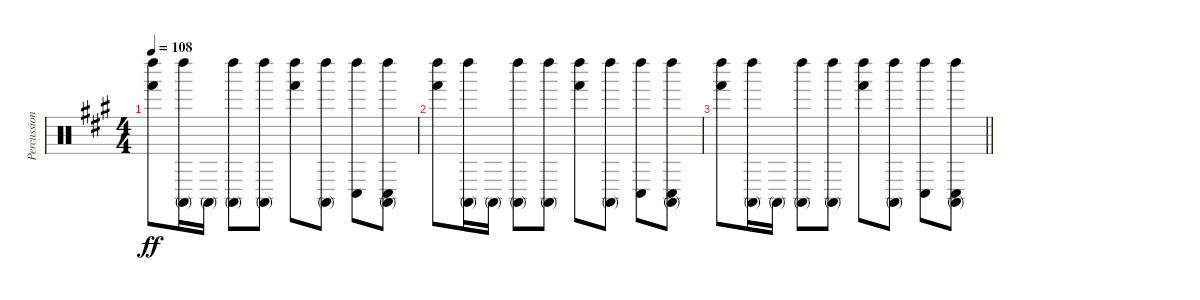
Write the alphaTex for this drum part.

\track ("Percussions" "Percussion") {instrument percussion}
\staff {score}
\articulation defaults
\ts (4 4)
\tempo 108
\clef neutral
\ks f#minor
("Hand (hit)" "Left Maraca (hit)").8{dy ff} ("Left Maraca (hit)" "Conga high (mute)").16 "Conga high (mute)".16 ("Left Maraca (hit)" "Conga high (mute)").8 ("Left Maraca (hit)" "Conga high (mute)").8 ("Left Maraca (hit)" "Hand (hit)").8 ("Left Maraca (hit)" "Conga high (mute)").8 ("Left Maraca (hit)" "Conga low (hit)").8 ("Left Maraca (hit)" "Conga high (mute)" "Conga low (hit)").8 |
("Hand (hit)" "Left Maraca (hit)").8 ("Left Maraca (hit)" "Conga high (mute)").16 "Conga high (mute)".16 ("Left Maraca (hit)" "Conga high (mute)").8 ("Left Maraca (hit)" "Conga high (mute)").8 ("Left Maraca (hit)" "Hand (hit)").8 ("Left Maraca (hit)" "Conga high (mute)").8 ("Left Maraca (hit)" "Conga low (hit)").8 ("Left Maraca (hit)" "Conga high (mute)" "Conga low (hit)").8 |
\barLineRight lightlight
("Hand (hit)" "Left Maraca (hit)").8 ("Left Maraca (hit)" "Conga high (mute)").16 "Conga high (mute)".16 ("Left Maraca (hit)" "Conga high (mute)").8 ("Left Maraca (hit)" "Conga high (mute)").8 ("Left Maraca (hit)" "Hand (hit)").8 ("Left Maraca (hit)" "Conga high (mute)").8 ("Left Maraca (hit)" "Conga low (hit)").8 ("Left Maraca (hit)" "Conga high (mute)" "Conga low (hit)").8
